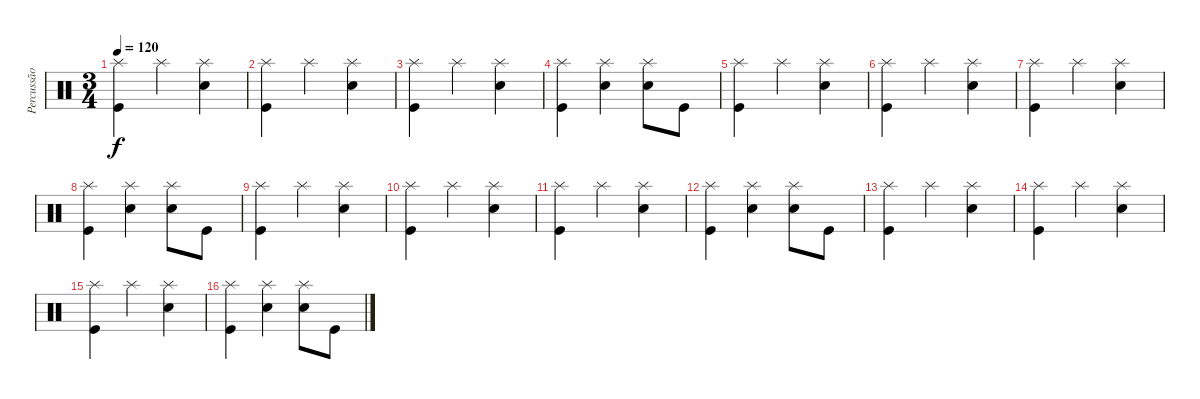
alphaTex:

\track ("Percussão" "Percussão") {instrument percussion}
\staff {score}
\articulation defaults
\ts (3 4)
\tempo 120
\clef neutral
\ks c
("Kick (hit)" "Splash (hit)").4{dy f} "Splash (hit)".4 ("Electric Snare (hit)" "Splash (hit)").4 |
("Kick (hit)" "Splash (hit)").4 "Splash (hit)".4 ("Electric Snare (hit)" "Splash (hit)").4 |
("Kick (hit)" "Splash (hit)").4 "Splash (hit)".4 ("Electric Snare (hit)" "Splash (hit)").4 |
("Kick (hit)" "Splash (hit)").4 ("Electric Snare (hit)" "Splash (hit)").4 ("Electric Snare (hit)" "Splash (hit)").8 "Kick (hit)".8 |
("Kick (hit)" "Splash (hit)").4 "Splash (hit)".4 ("Electric Snare (hit)" "Splash (hit)").4 |
("Kick (hit)" "Splash (hit)").4 "Splash (hit)".4 ("Electric Snare (hit)" "Splash (hit)").4 |
("Kick (hit)" "Splash (hit)").4 "Splash (hit)".4 ("Electric Snare (hit)" "Splash (hit)").4 |
("Kick (hit)" "Splash (hit)").4 ("Electric Snare (hit)" "Splash (hit)").4 ("Electric Snare (hit)" "Splash (hit)").8 "Kick (hit)".8 |
("Kick (hit)" "Splash (hit)").4 "Splash (hit)".4 ("Electric Snare (hit)" "Splash (hit)").4 |
("Kick (hit)" "Splash (hit)").4 "Splash (hit)".4 ("Electric Snare (hit)" "Splash (hit)").4 |
("Kick (hit)" "Splash (hit)").4 "Splash (hit)".4 ("Electric Snare (hit)" "Splash (hit)").4 |
("Kick (hit)" "Splash (hit)").4 ("Electric Snare (hit)" "Splash (hit)").4 ("Electric Snare (hit)" "Splash (hit)").8 "Kick (hit)".8 |
("Kick (hit)" "Splash (hit)").4 "Splash (hit)".4 ("Electric Snare (hit)" "Splash (hit)").4 |
("Kick (hit)" "Splash (hit)").4 "Splash (hit)".4 ("Electric Snare (hit)" "Splash (hit)").4 |
("Kick (hit)" "Splash (hit)").4 "Splash (hit)".4 ("Electric Snare (hit)" "Splash (hit)").4 |
("Kick (hit)" "Splash (hit)").4 ("Electric Snare (hit)" "Splash (hit)").4 ("Electric Snare (hit)" "Splash (hit)").8 "Kick (hit)".8
